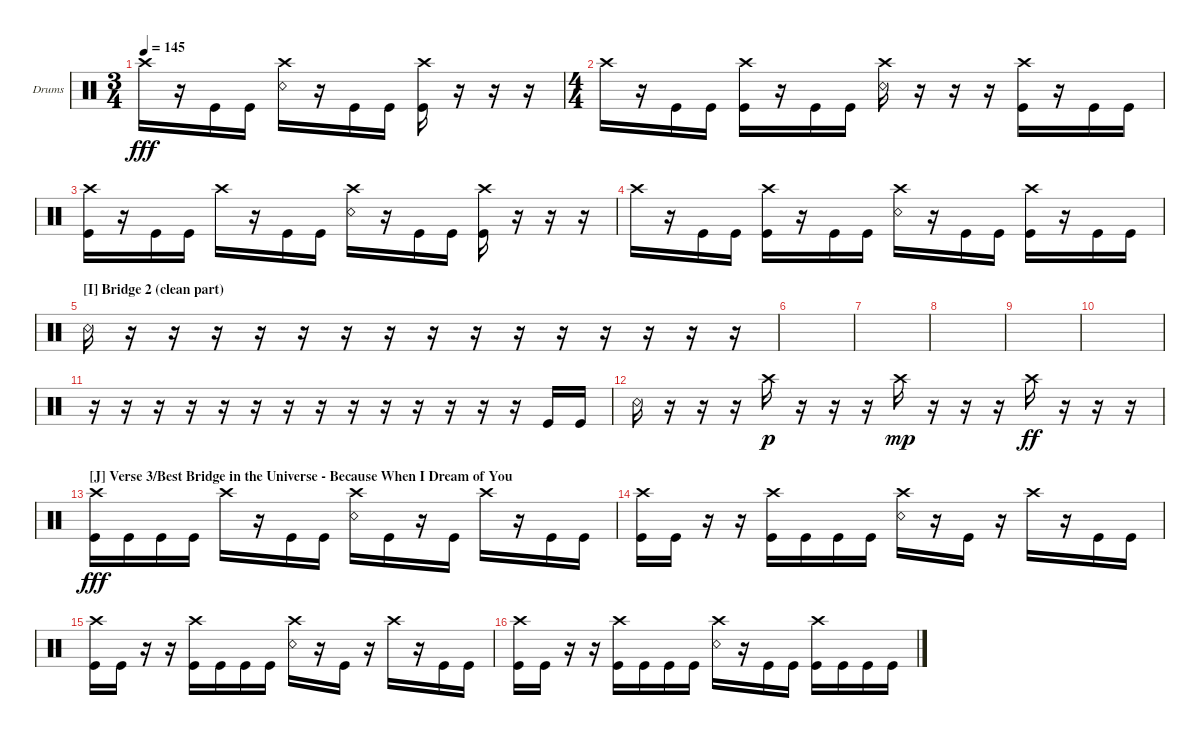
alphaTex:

\defaultSystemsLayout 4
\bracketExtendMode groupsimilarinstruments
\firstSystemTrackNameOrientation horizontal
\otherSystemsTrackNameOrientation horizontal
\track ("Chris Khoury" "Drums") {instrument percussion}
\staff {score}
\articulation defaults
\ts (3 4)
\tempo 145
\clef neutral
\scale
0.391473
\ks c "Crash high (hit)".16{dy fff}
r.16 "Kick (hit)".16 "Kick (hit)".16 ("Snare (rim shot)" "Crash high (hit)").16 r.16 "Kick (hit)".16 "Kick (hit)".16 ("Kick (hit)" "Crash high (hit)").16 r.16 r.16 r.16 |
\ts (4 4)
\scale
0.391473 "Crash high (hit)".16 r.16 "Kick (hit)".16 "Kick (hit)".16 ("Kick (hit)" "Crash high (hit)").16 r.16 "Kick (hit)".16 "Kick (hit)".16 ("Snare (rim shot)" "Crash high (hit)").16 r.16 r.16 r.16 ("Crash high (hit)" "Kick (hit)").16 r.16 "Kick (hit)".16 "Kick (hit)".16 |
\scale
0.217054 ("Kick (hit)" "Crash high (hit)").16 r.16 "Kick (hit)".16 "Kick (hit)".16 "Crash high (hit)".16 r.16 "Kick (hit)".16 "Kick (hit)".16 ("Crash high (hit)" "Snare (rim shot)").16 r.16 "Kick (hit)".16 "Kick (hit)".16 ("Crash high (hit)" "Kick (hit)").16 r.16 r.16 r.16 |
"Crash high (hit)".16 r.16 "Kick (hit)".16 "Kick (hit)".16 ("Crash high (hit)" "Kick (hit)").16 r.16 "Kick (hit)".16 "Kick (hit)".16 ("Crash high (hit)" "Snare (rim shot)").16 r.16 "Kick (hit)".16 "Kick (hit)".16 ("Crash high (hit)" "Kick (hit)").16 r.16 "Kick (hit)".16 "Kick (hit)".16 |
\section ("I" "Bridge 2 (clean part)")
"Snare (rim shot)".16 r.16 r.16 r.16 r.16 r.16 r.16 r.16 r.16 r.16 r.16 r.16 r.16 r.16 r.16 r.16 |
|
|
|
|
|
r.16 r.16 r.16 r.16 r.16 r.16 r.16 r.16 r.16 r.16 r.16 r.16 r.16 r.16 "Kick (hit)".16 "Kick (hit)".16 |
"Snare (rim shot)".16 r.16 r.16 r.16 "Crash high (hit)".16{dy p} r.16 r.16 r.16 "Crash high (hit)".16{dy mp} r.16 r.16 r.16 "Crash high (hit)".16{dy ff} r.16 r.16 r.16 |
\section ("J" "Verse 3/Best Bridge in the Universe - Because When I Dream of You")
("Kick (hit)" "Crash high (hit)").16{dy fff} "Kick (hit)".16 "Kick (hit)".16 "Kick (hit)".16 "Crash high (hit)".16 r.16 "Kick (hit)".16 "Kick (hit)".16 ("Snare (rim shot)" "Crash high (hit)").16 "Kick (hit)".16 r.16 "Kick (hit)".16 "Crash high (hit)".16 r.16 "Kick (hit)".16 "Kick (hit)".16 |
("Crash high (hit)" "Kick (hit)").16 "Kick (hit)".16 r.16 r.16 ("Crash high (hit)" "Kick (hit)").16 "Kick (hit)".16 "Kick (hit)".16 "Kick (hit)".16 ("Crash high (hit)" "Snare (rim shot)").16 r.16 "Kick (hit)".16 r.16 "Crash high (hit)".16 r.16 "Kick (hit)".16 "Kick (hit)".16 |
("Kick (hit)" "Crash high (hit)").16 "Kick (hit)".16 r.16 r.16 ("Crash high (hit)" "Kick (hit)").16 "Kick (hit)".16 "Kick (hit)".16 "Kick (hit)".16 ("Crash high (hit)" "Snare (rim shot)").16 r.16 "Kick (hit)".16 r.16 "Crash high (hit)".16 r.16 "Kick (hit)".16 "Kick (hit)".16 |
("Kick (hit)" "Crash high (hit)").16 "Kick (hit)".16 r.16 r.16 ("Crash high (hit)" "Kick (hit)").16 "Kick (hit)".16 "Kick (hit)".16 "Kick (hit)".16 ("Crash high (hit)" "Snare (rim shot)").16 r.16 "Kick (hit)".16 "Kick (hit)".16 ("Crash high (hit)" "Kick (hit)").16 "Kick (hit)".16 "Kick (hit)".16 "Kick (hit)".16
